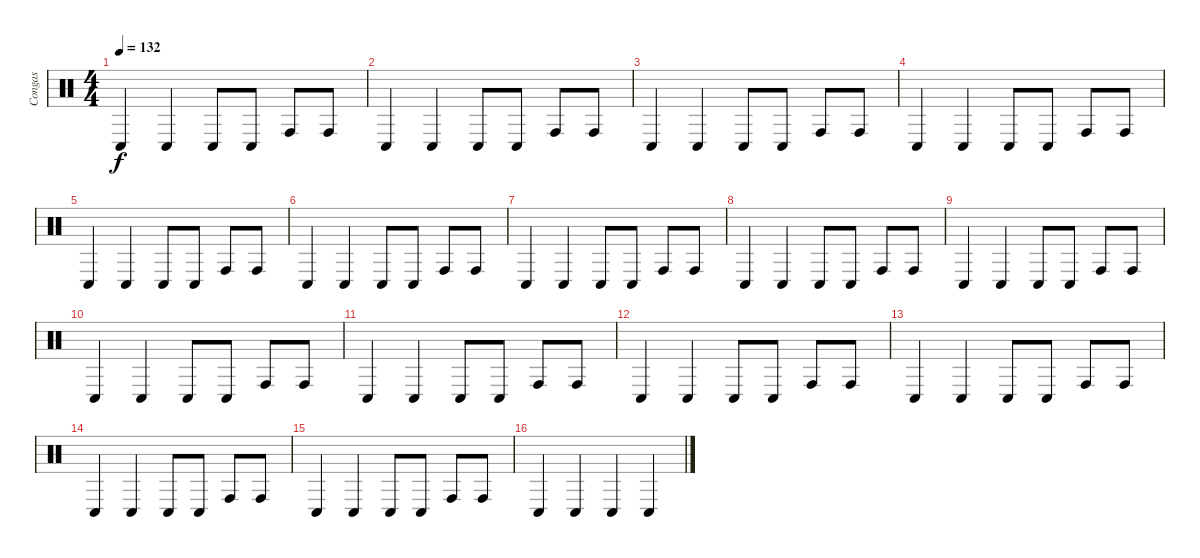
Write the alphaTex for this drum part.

\track ("Congas" "Congas") {instrument percussion}
\staff {score}
\articulation defaults
\ts (4 4)
\tempo 132
\clef neutral
\ks c "Conga low (hit)".4{dy f} "Conga low (hit)".4 "Conga low (hit)".8 "Conga low (hit)".8 "Conga high (hit)".8 "Conga high (hit)".8
|
"Conga low (hit)".4 "Conga low (hit)".4 "Conga low (hit)".8 "Conga low (hit)".8 "Conga high (hit)".8 "Conga high (hit)".8 |
"Conga low (hit)".4 "Conga low (hit)".4 "Conga low (hit)".8 "Conga low (hit)".8 "Conga high (hit)".8 "Conga high (hit)".8 |
"Conga low (hit)".4 "Conga low (hit)".4 "Conga low (hit)".8 "Conga low (hit)".8 "Conga high (hit)".8 "Conga high (hit)".8 |
"Conga low (hit)".4 "Conga low (hit)".4 "Conga low (hit)".8 "Conga low (hit)".8 "Conga high (hit)".8 "Conga high (hit)".8 |
"Conga low (hit)".4 "Conga low (hit)".4 "Conga low (hit)".8 "Conga low (hit)".8 "Conga high (hit)".8 "Conga high (hit)".8 |
"Conga low (hit)".4 "Conga low (hit)".4 "Conga low (hit)".8 "Conga low (hit)".8 "Conga high (hit)".8 "Conga high (hit)".8 |
"Conga low (hit)".4 "Conga low (hit)".4 "Conga low (hit)".8 "Conga low (hit)".8 "Conga high (hit)".8 "Conga high (hit)".8 |
"Conga low (hit)".4 "Conga low (hit)".4 "Conga low (hit)".8 "Conga low (hit)".8 "Conga high (hit)".8 "Conga high (hit)".8 |
"Conga low (hit)".4 "Conga low (hit)".4 "Conga low (hit)".8 "Conga low (hit)".8 "Conga high (hit)".8 "Conga high (hit)".8 |
"Conga low (hit)".4 "Conga low (hit)".4 "Conga low (hit)".8 "Conga low (hit)".8 "Conga high (hit)".8 "Conga high (hit)".8 |
"Conga low (hit)".4 "Conga low (hit)".4 "Conga low (hit)".8 "Conga low (hit)".8 "Conga high (hit)".8 "Conga high (hit)".8 |
"Conga low (hit)".4 "Conga low (hit)".4 "Conga low (hit)".8 "Conga low (hit)".8 "Conga high (hit)".8 "Conga high (hit)".8 |
"Conga low (hit)".4 "Conga low (hit)".4 "Conga low (hit)".8 "Conga low (hit)".8 "Conga high (hit)".8 "Conga high (hit)".8 |
"Conga low (hit)".4 "Conga low (hit)".4 "Conga low (hit)".8 "Conga low (hit)".8 "Conga high (hit)".8 "Conga high (hit)".8 |
"Conga low (hit)".4 "Conga low (hit)".4 "Conga low (hit)".4 "Conga low (hit)".4
